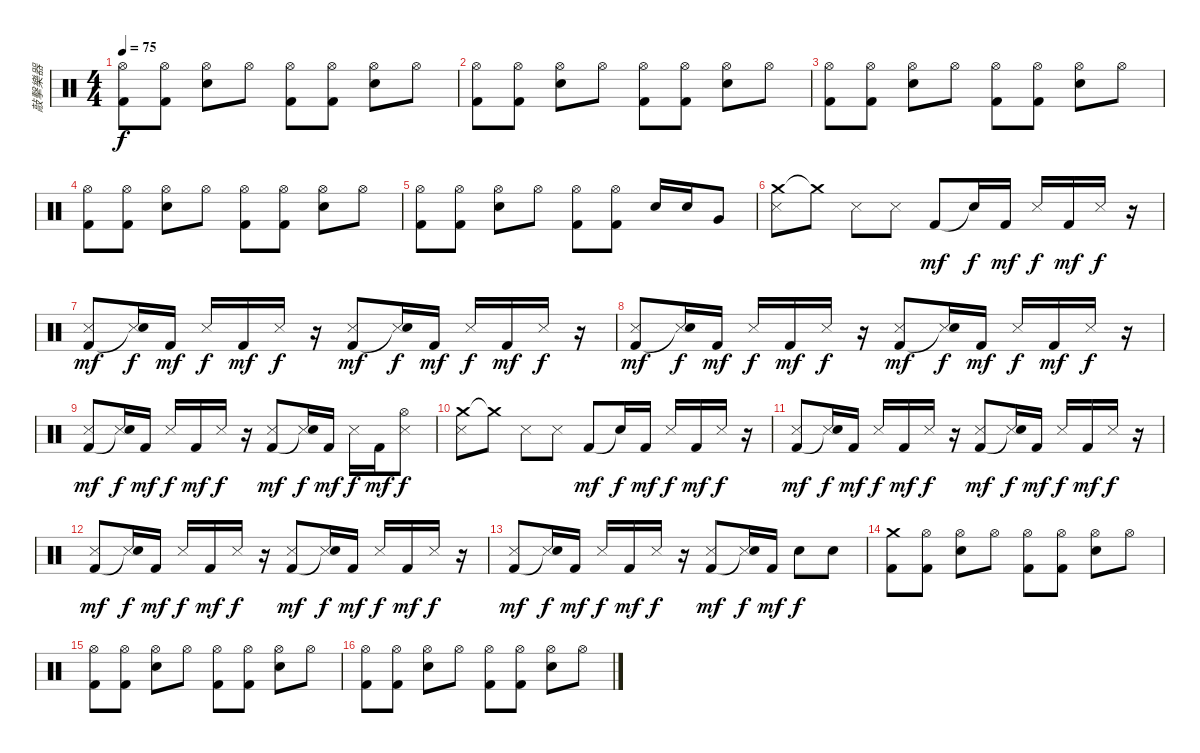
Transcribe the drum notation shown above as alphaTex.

\track ("敲擊樂器" "敲擊樂器") {instrument percussion}
\staff {score}
\articulation defaults
\ts (4 4)
\tempo 75
\clef neutral
\ks c
("Hi-Hat (open)" "Kick (hit) 2").8{dy f} ("Hi-Hat (open)" "Kick (hit) 2").8 ("Hi-Hat (open)" "Snare (hit) 2").8 "Hi-Hat (open)".8 ("Hi-Hat (open)" "Kick (hit) 2").8 ("Hi-Hat (open)" "Kick (hit) 2").8 ("Hi-Hat (open)" "Snare (hit) 2").8 "Hi-Hat (open)".8 |
("Hi-Hat (open)" "Kick (hit) 2").8 ("Hi-Hat (open)" "Kick (hit) 2").8 ("Hi-Hat (open)" "Snare (hit) 2").8 "Hi-Hat (open)".8 ("Hi-Hat (open)" "Kick (hit) 2").8 ("Hi-Hat (open)" "Kick (hit) 2").8 ("Hi-Hat (open)" "Snare (hit) 2").8 "Hi-Hat (open)".8 |
("Hi-Hat (open)" "Kick (hit) 2").8 ("Hi-Hat (open)" "Kick (hit) 2").8 ("Hi-Hat (open)" "Snare (hit) 2").8 "Hi-Hat (open)".8 ("Hi-Hat (open)" "Kick (hit) 2").8 ("Hi-Hat (open)" "Kick (hit) 2").8 ("Hi-Hat (open)" "Snare (hit) 2").8 "Hi-Hat (open)".8 |
("Hi-Hat (open)" "Kick (hit) 2").8 ("Hi-Hat (open)" "Kick (hit) 2").8 ("Hi-Hat (open)" "Snare (hit) 2").8 "Hi-Hat (open)".8 ("Hi-Hat (open)" "Kick (hit) 2").8 ("Hi-Hat (open)" "Kick (hit) 2").8 ("Hi-Hat (open)" "Snare (hit) 2").8 "Hi-Hat (open)".8 |
("Hi-Hat (open)" "Kick (hit) 2").8 ("Hi-Hat (open)" "Kick (hit) 2").8 ("Hi-Hat (open)" "Snare (hit) 2").8 "Hi-Hat (open)".8 ("Hi-Hat (open)" "Kick (hit) 2").8 ("Hi-Hat (open)" "Kick (hit) 2").8 "Snare (hit) 2".16 "Snare (hit) 2".16 "Very Low Tom (hit)".8 |
("Crash medium (hit)" "Snare (side stick) 3").8 "Crash medium (hit)"{t}.8 "Snare (side stick) 3".8 "Snare (side stick) 3".8 "Kick (hit) 2".8{dy mf} "Snare (hit)"{t}.16{dy f} "Kick (hit) 2".16{dy mf} "Snare (side stick) 3".16{dy f} "Kick (hit) 2".16{dy mf} "Snare (side stick) 3".16{dy f} r.16 |
("Snare (side stick) 3" "Kick (hit) 2").8{dy mf} ("Snare (side stick) 3" "Snare (hit)"{t}).16{dy f} "Kick (hit) 2".16{dy mf} "Snare (side stick) 3".16{dy f} "Kick (hit) 2".16{dy mf} "Snare (side stick) 3".16{dy f} r.16 ("Snare (side stick) 3" "Kick (hit) 2").8{dy mf} ("Snare (side stick) 3" "Snare (hit)"{t}).16{dy f} "Kick (hit) 2".16{dy mf} "Snare (side stick) 3".16{dy f} "Kick (hit) 2".16{dy mf} "Snare (side stick) 3".16{dy f} r.16 |
("Snare (side stick) 3" "Kick (hit) 2").8{dy mf} ("Snare (side stick) 3" "Snare (hit)"{t}).16{dy f} "Kick (hit) 2".16{dy mf} "Snare (side stick) 3".16{dy f} "Kick (hit) 2".16{dy mf} "Snare (side stick) 3".16{dy f} r.16 ("Snare (side stick) 3" "Kick (hit) 2").8{dy mf} ("Snare (side stick) 3" "Snare (hit)"{t}).16{dy f} "Kick (hit) 2".16{dy mf} "Snare (side stick) 3".16{dy f} "Kick (hit) 2".16{dy mf} "Snare (side stick) 3".16{dy f} r.16 |
("Snare (side stick) 3" "Kick (hit) 2").8{dy mf} ("Snare (side stick) 3" "Snare (hit)"{t}).16{dy f} "Kick (hit) 2".16{dy mf} "Snare (side stick) 3".16{dy f} "Kick (hit) 2".16{dy mf} "Snare (side stick) 3".16{dy f} r.16 ("Snare (side stick) 3" "Kick (hit) 2").8{dy mf} ("Snare (side stick) 3" "Snare (hit)"{t}).16{dy f} "Kick (hit) 2".16{dy mf} "Snare (side stick) 3".16{dy f} "Kick (hit) 2".16{dy mf} ("Hi-Hat (open)" "Snare (side stick) 3").8{dy f} |
("Crash medium (hit)" "Snare (side stick) 3").8 "Crash medium (hit)"{t}.8 "Snare (side stick) 3".8 "Snare (side stick) 3".8 "Kick (hit) 2".8{dy mf} "Snare (hit)"{t}.16{dy f} "Kick (hit) 2".16{dy mf} "Snare (side stick) 3".16{dy f} "Kick (hit) 2".16{dy mf} "Snare (side stick) 3".16{dy f} r.16 |
("Snare (side stick) 3" "Kick (hit) 2").8{dy mf} ("Snare (side stick) 3" "Snare (hit)"{t}).16{dy f} "Kick (hit) 2".16{dy mf} "Snare (side stick) 3".16{dy f} "Kick (hit) 2".16{dy mf} "Snare (side stick) 3".16{dy f} r.16 ("Snare (side stick) 3" "Kick (hit) 2").8{dy mf} ("Snare (side stick) 3" "Snare (hit)"{t}).16{dy f} "Kick (hit) 2".16{dy mf} "Snare (side stick) 3".16{dy f} "Kick (hit) 2".16{dy mf} "Snare (side stick) 3".16{dy f} r.16 |
("Snare (side stick) 3" "Kick (hit) 2").8{dy mf} ("Snare (side stick) 3" "Snare (hit)"{t}).16{dy f} "Kick (hit) 2".16{dy mf} "Snare (side stick) 3".16{dy f} "Kick (hit) 2".16{dy mf} "Snare (side stick) 3".16{dy f} r.16 ("Snare (side stick) 3" "Kick (hit) 2").8{dy mf} ("Snare (side stick) 3" "Snare (hit)"{t}).16{dy f} "Kick (hit) 2".16{dy mf} "Snare (side stick) 3".16{dy f} "Kick (hit) 2".16{dy mf} "Snare (side stick) 3".16{dy f} r.16 |
("Snare (side stick) 3" "Kick (hit) 2").8{dy mf} ("Snare (side stick) 3" "Snare (hit)"{t}).16{dy f} "Kick (hit) 2".16{dy mf} "Snare (side stick) 3".16{dy f} "Kick (hit) 2".16{dy mf} "Snare (side stick) 3".16{dy f} r.16 ("Snare (side stick) 3" "Kick (hit) 2").8{dy mf} ("Snare (side stick) 3" "Snare (hit)"{t}).16{dy f} "Kick (hit) 2".16{dy mf} "Snare (hit) 2".8{dy f} "Snare (hit) 2".8 |
("Crash medium (hit)" "Kick (hit) 2").8 ("Hi-Hat (open)" "Kick (hit) 2").8 ("Hi-Hat (open)" "Snare (hit) 2").8 "Hi-Hat (open)".8 ("Hi-Hat (open)" "Kick (hit) 2").8 ("Hi-Hat (open)" "Kick (hit) 2").8 ("Hi-Hat (open)" "Snare (hit) 2").8 "Hi-Hat (open)".8 |
("Hi-Hat (open)" "Kick (hit) 2").8 ("Hi-Hat (open)" "Kick (hit) 2").8 ("Hi-Hat (open)" "Snare (hit) 2").8 "Hi-Hat (open)".8 ("Hi-Hat (open)" "Kick (hit) 2").8 ("Hi-Hat (open)" "Kick (hit) 2").8 ("Hi-Hat (open)" "Snare (hit) 2").8 "Hi-Hat (open)".8 |
("Hi-Hat (open)" "Kick (hit) 2").8 ("Hi-Hat (open)" "Kick (hit) 2").8 ("Hi-Hat (open)" "Snare (hit) 2").8 "Hi-Hat (open)".8 ("Hi-Hat (open)" "Kick (hit) 2").8 ("Hi-Hat (open)" "Kick (hit) 2").8 ("Hi-Hat (open)" "Snare (hit) 2").8 "Hi-Hat (open)".8
